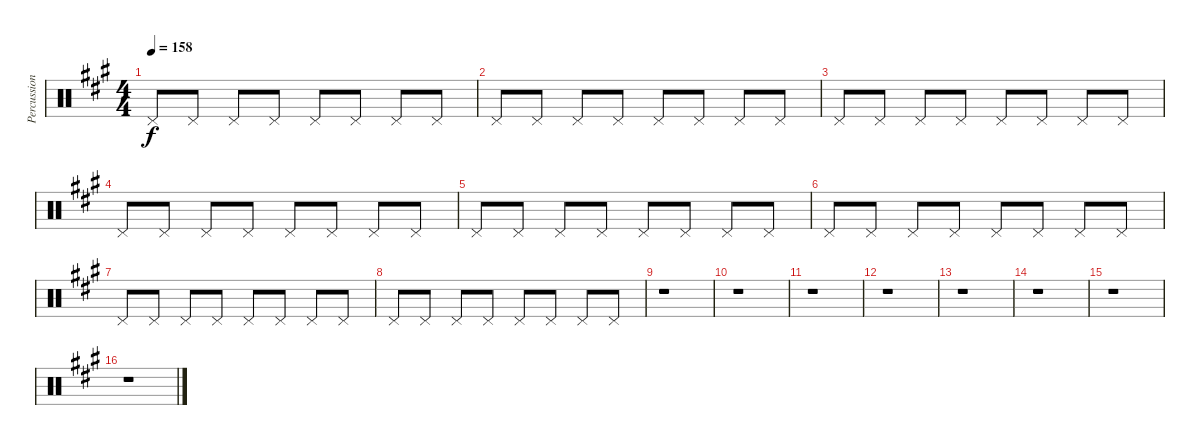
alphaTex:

\track ("Percussion" "Percussion") {instrument percussion}
\staff {score}
\articulation defaults
\ts (4 4)
\tempo 158
\clef neutral
\ks a "Pedal Hi-Hat (hit)".8{dy f} "Pedal Hi-Hat (hit)".8 "Pedal Hi-Hat (hit)".8 "Pedal Hi-Hat (hit)".8 "Pedal Hi-Hat (hit)".8 "Pedal Hi-Hat (hit)".8 "Pedal Hi-Hat (hit)".8 "Pedal Hi-Hat (hit)".8
|
"Pedal Hi-Hat (hit)".8 "Pedal Hi-Hat (hit)".8 "Pedal Hi-Hat (hit)".8 "Pedal Hi-Hat (hit)".8 "Pedal Hi-Hat (hit)".8 "Pedal Hi-Hat (hit)".8 "Pedal Hi-Hat (hit)".8 "Pedal Hi-Hat (hit)".8 |
"Pedal Hi-Hat (hit)".8 "Pedal Hi-Hat (hit)".8 "Pedal Hi-Hat (hit)".8 "Pedal Hi-Hat (hit)".8 "Pedal Hi-Hat (hit)".8 "Pedal Hi-Hat (hit)".8 "Pedal Hi-Hat (hit)".8 "Pedal Hi-Hat (hit)".8 |
"Pedal Hi-Hat (hit)".8 "Pedal Hi-Hat (hit)".8 "Pedal Hi-Hat (hit)".8 "Pedal Hi-Hat (hit)".8 "Pedal Hi-Hat (hit)".8 "Pedal Hi-Hat (hit)".8 "Pedal Hi-Hat (hit)".8 "Pedal Hi-Hat (hit)".8 |
"Pedal Hi-Hat (hit)".8 "Pedal Hi-Hat (hit)".8 "Pedal Hi-Hat (hit)".8 "Pedal Hi-Hat (hit)".8 "Pedal Hi-Hat (hit)".8 "Pedal Hi-Hat (hit)".8 "Pedal Hi-Hat (hit)".8 "Pedal Hi-Hat (hit)".8 |
"Pedal Hi-Hat (hit)".8 "Pedal Hi-Hat (hit)".8 "Pedal Hi-Hat (hit)".8 "Pedal Hi-Hat (hit)".8 "Pedal Hi-Hat (hit)".8 "Pedal Hi-Hat (hit)".8 "Pedal Hi-Hat (hit)".8 "Pedal Hi-Hat (hit)".8 |
"Pedal Hi-Hat (hit)".8 "Pedal Hi-Hat (hit)".8 "Pedal Hi-Hat (hit)".8 "Pedal Hi-Hat (hit)".8 "Pedal Hi-Hat (hit)".8 "Pedal Hi-Hat (hit)".8 "Pedal Hi-Hat (hit)".8 "Pedal Hi-Hat (hit)".8 |
"Pedal Hi-Hat (hit)".8 "Pedal Hi-Hat (hit)".8 "Pedal Hi-Hat (hit)".8 "Pedal Hi-Hat (hit)".8 "Pedal Hi-Hat (hit)".8 "Pedal Hi-Hat (hit)".8 "Pedal Hi-Hat (hit)".8 "Pedal Hi-Hat (hit)".8 |
r.1 |
r.1 |
r.1 |
r.1 |
r.1 |
r.1 |
r.1 |
r.1
